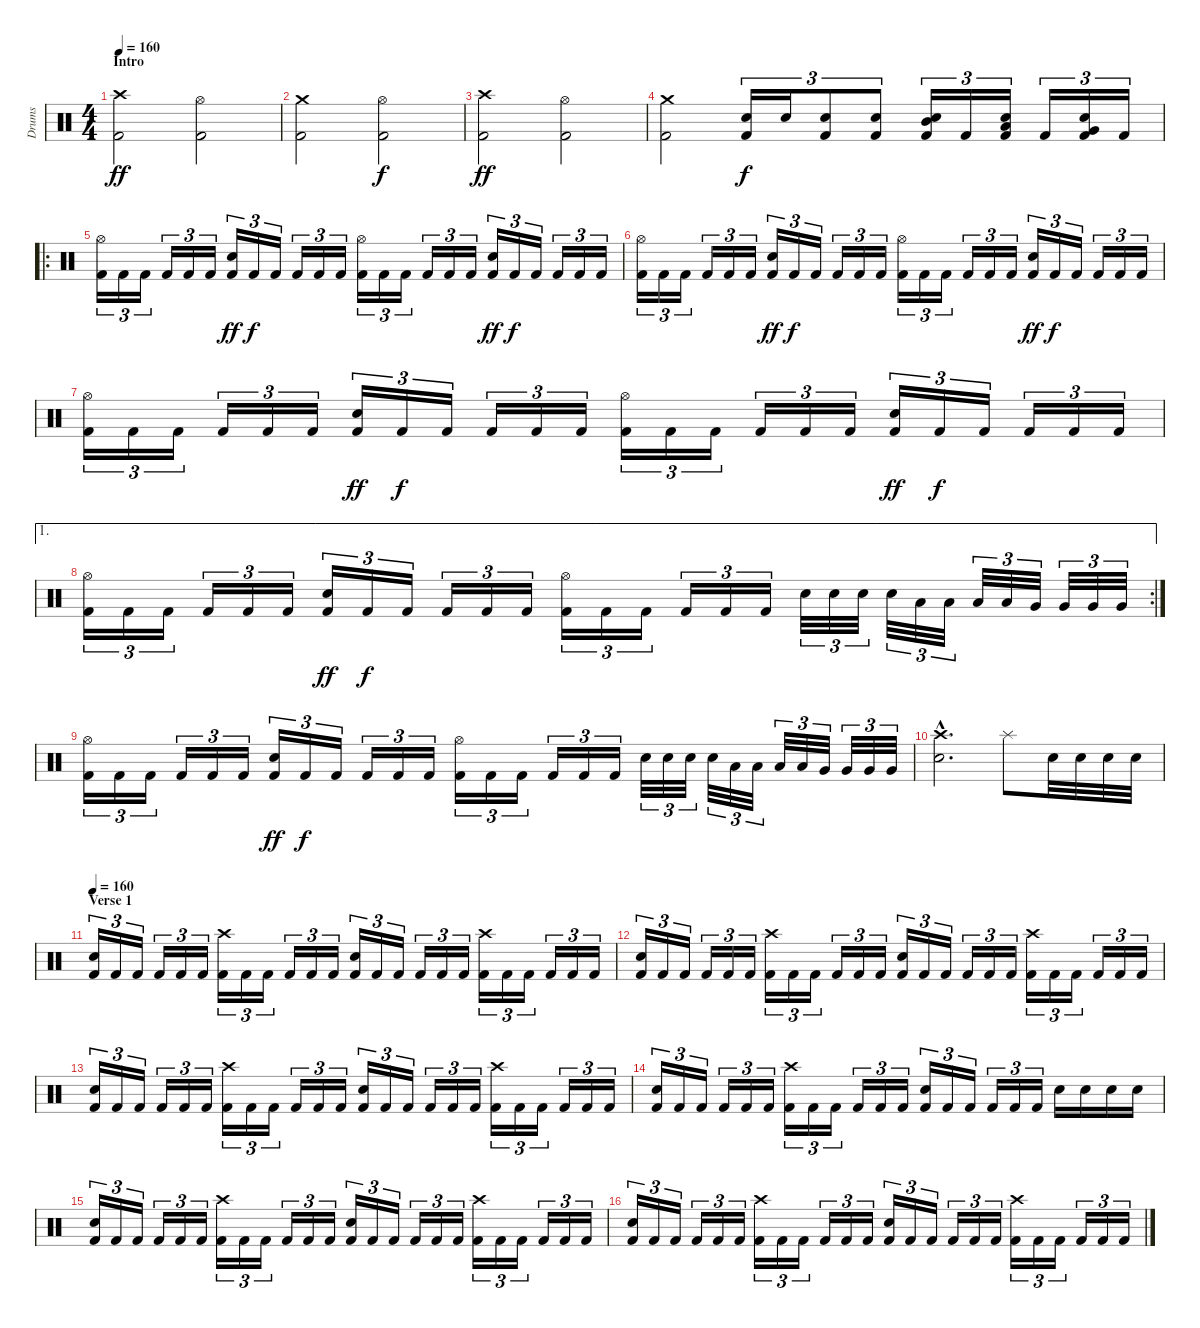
\track ("Drums" "Drums") {instrument percussion}
\staff {score}
\articulation defaults
\ts (4 4)
\section ("" "Intro")
\tempo 160
\tempo 125
\tempo 160
\clef neutral
\ks c
("Crash high (hit)" "Kick (hit) 2").2{dy ff} ("Hi-Hat (open)" "Kick (hit) 2").2 |
("Crash medium (hit)" "Kick (hit) 2").2 ("Hi-Hat (open)" "Kick (hit) 2").2{dy f} |
("Crash high (hit)" "Kick (hit) 2").2{dy ff} ("Hi-Hat (open)" "Kick (hit) 2").2 |
("Crash medium (hit)" "Kick (hit) 2").2 ("Electric Snare (hit)" "Kick (hit) 2").16{tu (3 2) dy f} "Electric Snare (hit)".16{tu (3 2)} ("Electric Snare (hit)" "Kick (hit) 2").8{tu (3 2)} ("Electric Snare (hit)" "Kick (hit) 2").8{tu (3 2)} ("Mid Tom (hit)" "Electric Snare (hit)" "Kick (hit) 2").16{tu (3 2)} "Kick (hit) 2".16{tu (3 2)} ("Low Tom (hit)" "Electric Snare (hit)" "Kick (hit) 2").16{tu (3 2)} "Kick (hit) 2".16{tu (3 2)} ("Very Low Tom (hit)" "Electric Snare (hit)" "Kick (hit) 2").16{tu (3 2)} "Kick (hit) 2".16{tu (3 2)} |
\ro
("Hi-Hat (open)" "Kick (hit) 2").16{tu (3 2)} "Kick (hit) 2".16{tu (3 2)} "Kick (hit) 2".16{tu (3 2)} "Kick (hit) 2".16{tu (3 2)} "Kick (hit) 2".16{tu (3 2)} "Kick (hit) 2".16{tu (3 2)} ("Electric Snare (hit)" "Kick (hit) 2").16{tu (3 2) dy ff} "Kick (hit) 2".16{tu (3 2) dy f} "Kick (hit) 2".16{tu (3 2)} "Kick (hit) 2".16{tu (3 2)} "Kick (hit) 2".16{tu (3 2)} "Kick (hit) 2".16{tu (3 2)} ("Hi-Hat (open)" "Kick (hit) 2").16{tu (3 2)} "Kick (hit) 2".16{tu (3 2)} "Kick (hit) 2".16{tu (3 2)} "Kick (hit) 2".16{tu (3 2)} "Kick (hit) 2".16{tu (3 2)} "Kick (hit) 2".16{tu (3 2)} ("Electric Snare (hit)" "Kick (hit) 2").16{tu (3 2) dy ff} "Kick (hit) 2".16{tu (3 2) dy f} "Kick (hit) 2".16{tu (3 2)} "Kick (hit) 2".16{tu (3 2)} "Kick (hit) 2".16{tu (3 2)} "Kick (hit) 2".16{tu (3 2)} |
("Hi-Hat (open)" "Kick (hit) 2").16{tu (3 2)} "Kick (hit) 2".16{tu (3 2)} "Kick (hit) 2".16{tu (3 2)} "Kick (hit) 2".16{tu (3 2)} "Kick (hit) 2".16{tu (3 2)} "Kick (hit) 2".16{tu (3 2)} ("Electric Snare (hit)" "Kick (hit) 2").16{tu (3 2) dy ff} "Kick (hit) 2".16{tu (3 2) dy f} "Kick (hit) 2".16{tu (3 2)} "Kick (hit) 2".16{tu (3 2)} "Kick (hit) 2".16{tu (3 2)} "Kick (hit) 2".16{tu (3 2)} ("Hi-Hat (open)" "Kick (hit) 2").16{tu (3 2)} "Kick (hit) 2".16{tu (3 2)} "Kick (hit) 2".16{tu (3 2)} "Kick (hit) 2".16{tu (3 2)} "Kick (hit) 2".16{tu (3 2)} "Kick (hit) 2".16{tu (3 2)} ("Electric Snare (hit)" "Kick (hit) 2").16{tu (3 2) dy ff} "Kick (hit) 2".16{tu (3 2) dy f} "Kick (hit) 2".16{tu (3 2)} "Kick (hit) 2".16{tu (3 2)} "Kick (hit) 2".16{tu (3 2)} "Kick (hit) 2".16{tu (3 2)} |
("Hi-Hat (open)" "Kick (hit) 2").16{tu (3 2)} "Kick (hit) 2".16{tu (3 2)} "Kick (hit) 2".16{tu (3 2)} "Kick (hit) 2".16{tu (3 2)} "Kick (hit) 2".16{tu (3 2)} "Kick (hit) 2".16{tu (3 2)} ("Electric Snare (hit)" "Kick (hit) 2").16{tu (3 2) dy ff} "Kick (hit) 2".16{tu (3 2) dy f} "Kick (hit) 2".16{tu (3 2)} "Kick (hit) 2".16{tu (3 2)} "Kick (hit) 2".16{tu (3 2)} "Kick (hit) 2".16{tu (3 2)} ("Hi-Hat (open)" "Kick (hit) 2").16{tu (3 2)} "Kick (hit) 2".16{tu (3 2)} "Kick (hit) 2".16{tu (3 2)} "Kick (hit) 2".16{tu (3 2)} "Kick (hit) 2".16{tu (3 2)} "Kick (hit) 2".16{tu (3 2)} ("Electric Snare (hit)" "Kick (hit) 2").16{tu (3 2) dy ff} "Kick (hit) 2".16{tu (3 2) dy f} "Kick (hit) 2".16{tu (3 2)} "Kick (hit) 2".16{tu (3 2)} "Kick (hit) 2".16{tu (3 2)} "Kick (hit) 2".16{tu (3 2)} |
\ae 1
\rc 2
("Hi-Hat (open)" "Kick (hit) 2").16{tu (3 2)} "Kick (hit) 2".16{tu (3 2)} "Kick (hit) 2".16{tu (3 2)} "Kick (hit) 2".16{tu (3 2)} "Kick (hit) 2".16{tu (3 2)} "Kick (hit) 2".16{tu (3 2)} ("Electric Snare (hit)" "Kick (hit) 2").16{tu (3 2) dy ff} "Kick (hit) 2".16{tu (3 2) dy f} "Kick (hit) 2".16{tu (3 2)} "Kick (hit) 2".16{tu (3 2)} "Kick (hit) 2".16{tu (3 2)} "Kick (hit) 2".16{tu (3 2)} ("Hi-Hat (open)" "Kick (hit) 2").16{tu (3 2)} "Kick (hit) 2".16{tu (3 2)} "Kick (hit) 2".16{tu (3 2)} "Kick (hit) 2".16{tu (3 2)} "Kick (hit) 2".16{tu (3 2)} "Kick (hit) 2".16{tu (3 2)} "Electric Snare (hit)".32{tu (3 2)} "Electric Snare (hit)".32{tu (3 2)} "Electric Snare (hit)".32{tu (3 2)} "Electric Snare (hit)".32{tu (3 2)} "Low Tom (hit)".32{tu (3 2)} "Low Tom (hit)".32{tu (3 2)} "Low Tom (hit)".32{tu (3 2)} "Low Tom (hit)".32{tu (3 2)} "Very Low Tom (hit)".32{tu (3 2)} "Very Low Tom (hit)".32{tu (3 2)} "Very Low Tom (hit)".32{tu (3 2)} "Very Low Tom (hit)".32{tu (3 2)} |
("Hi-Hat (open)" "Kick (hit) 2").16{tu (3 2)} "Kick (hit) 2".16{tu (3 2)} "Kick (hit) 2".16{tu (3 2)} "Kick (hit) 2".16{tu (3 2)} "Kick (hit) 2".16{tu (3 2)} "Kick (hit) 2".16{tu (3 2)} ("Electric Snare (hit)" "Kick (hit) 2").16{tu (3 2) dy ff} "Kick (hit) 2".16{tu (3 2) dy f} "Kick (hit) 2".16{tu (3 2)} "Kick (hit) 2".16{tu (3 2)} "Kick (hit) 2".16{tu (3 2)} "Kick (hit) 2".16{tu (3 2)} ("Hi-Hat (open)" "Kick (hit) 2").16{tu (3 2)} "Kick (hit) 2".16{tu (3 2)} "Kick (hit) 2".16{tu (3 2)} "Kick (hit) 2".16{tu (3 2)} "Kick (hit) 2".16{tu (3 2)} "Kick (hit) 2".16{tu (3 2)} "Electric Snare (hit)".32{tu (3 2)} "Electric Snare (hit)".32{tu (3 2)} "Electric Snare (hit)".32{tu (3 2)} "Electric Snare (hit)".32{tu (3 2)} "Low Tom (hit)".32{tu (3 2)} "Low Tom (hit)".32{tu (3 2)} "Low Tom (hit)".32{tu (3 2)} "Low Tom (hit)".32{tu (3 2)} "Very Low Tom (hit)".32{tu (3 2)} "Very Low Tom (hit)".32{tu (3 2)} "Very Low Tom (hit)".32{tu (3 2)} "Very Low Tom (hit)".32{tu (3 2)} |
("Crash high (hit)"{hac} "Electric Snare (hit)"{hac}).2{d} "Splash (hit)".8 "Electric Snare (hit)".32 "Electric Snare (hit)".32 "Electric Snare (hit)".32 "Electric Snare (hit)".32 |
\section ("" "Verse 1")
\tempo 160
("Kick (hit) 2" "Electric Snare (hit)").16{tu (3 2)} "Kick (hit) 2".16{tu (3 2)} "Kick (hit) 2".16{tu (3 2)} "Kick (hit) 2".16{tu (3 2)} "Kick (hit) 2".16{tu (3 2)} "Kick (hit) 2".16{tu (3 2)} ("Kick (hit) 2" "Crash high (hit)").16{tu (3 2)} "Kick (hit) 2".16{tu (3 2)} "Kick (hit) 2".16{tu (3 2)} "Kick (hit) 2".16{tu (3 2)} "Kick (hit) 2".16{tu (3 2)} "Kick (hit) 2".16{tu (3 2)} ("Kick (hit) 2" "Electric Snare (hit)").16{tu (3 2)} "Kick (hit) 2".16{tu (3 2)} "Kick (hit) 2".16{tu (3 2)} "Kick (hit) 2".16{tu (3 2)} "Kick (hit) 2".16{tu (3 2)} "Kick (hit) 2".16{tu (3 2)} ("Kick (hit) 2" "Crash high (hit)").16{tu (3 2)} "Kick (hit) 2".16{tu (3 2)} "Kick (hit) 2".16{tu (3 2)} "Kick (hit) 2".16{tu (3 2)} "Kick (hit) 2".16{tu (3 2)} "Kick (hit) 2".16{tu (3 2)} |
("Kick (hit) 2" "Electric Snare (hit)").16{tu (3 2)} "Kick (hit) 2".16{tu (3 2)} "Kick (hit) 2".16{tu (3 2)} "Kick (hit) 2".16{tu (3 2)} "Kick (hit) 2".16{tu (3 2)} "Kick (hit) 2".16{tu (3 2)} ("Kick (hit) 2" "Crash high (hit)").16{tu (3 2)} "Kick (hit) 2".16{tu (3 2)} "Kick (hit) 2".16{tu (3 2)} "Kick (hit) 2".16{tu (3 2)} "Kick (hit) 2".16{tu (3 2)} "Kick (hit) 2".16{tu (3 2)} ("Kick (hit) 2" "Electric Snare (hit)").16{tu (3 2)} "Kick (hit) 2".16{tu (3 2)} "Kick (hit) 2".16{tu (3 2)} "Kick (hit) 2".16{tu (3 2)} "Kick (hit) 2".16{tu (3 2)} "Kick (hit) 2".16{tu (3 2)} ("Kick (hit) 2" "Crash high (hit)").16{tu (3 2)} "Kick (hit) 2".16{tu (3 2)} "Kick (hit) 2".16{tu (3 2)} "Kick (hit) 2".16{tu (3 2)} "Kick (hit) 2".16{tu (3 2)} "Kick (hit) 2".16{tu (3 2)} |
("Kick (hit) 2" "Electric Snare (hit)").16{tu (3 2)} "Kick (hit) 2".16{tu (3 2)} "Kick (hit) 2".16{tu (3 2)} "Kick (hit) 2".16{tu (3 2)} "Kick (hit) 2".16{tu (3 2)} "Kick (hit) 2".16{tu (3 2)} ("Kick (hit) 2" "Crash high (hit)").16{tu (3 2)} "Kick (hit) 2".16{tu (3 2)} "Kick (hit) 2".16{tu (3 2)} "Kick (hit) 2".16{tu (3 2)} "Kick (hit) 2".16{tu (3 2)} "Kick (hit) 2".16{tu (3 2)} ("Kick (hit) 2" "Electric Snare (hit)").16{tu (3 2)} "Kick (hit) 2".16{tu (3 2)} "Kick (hit) 2".16{tu (3 2)} "Kick (hit) 2".16{tu (3 2)} "Kick (hit) 2".16{tu (3 2)} "Kick (hit) 2".16{tu (3 2)} ("Kick (hit) 2" "Crash high (hit)").16{tu (3 2)} "Kick (hit) 2".16{tu (3 2)} "Kick (hit) 2".16{tu (3 2)} "Kick (hit) 2".16{tu (3 2)} "Kick (hit) 2".16{tu (3 2)} "Kick (hit) 2".16{tu (3 2)} |
("Kick (hit) 2" "Electric Snare (hit)").16{tu (3 2)} "Kick (hit) 2".16{tu (3 2)} "Kick (hit) 2".16{tu (3 2)} "Kick (hit) 2".16{tu (3 2)} "Kick (hit) 2".16{tu (3 2)} "Kick (hit) 2".16{tu (3 2)} ("Kick (hit) 2" "Crash high (hit)").16{tu (3 2)} "Kick (hit) 2".16{tu (3 2)} "Kick (hit) 2".16{tu (3 2)} "Kick (hit) 2".16{tu (3 2)} "Kick (hit) 2".16{tu (3 2)} "Kick (hit) 2".16{tu (3 2)} ("Kick (hit) 2" "Electric Snare (hit)").16{tu (3 2)} "Kick (hit) 2".16{tu (3 2)} "Kick (hit) 2".16{tu (3 2)} "Kick (hit) 2".16{tu (3 2)} "Kick (hit) 2".16{tu (3 2)} "Kick (hit) 2".16{tu (3 2)} "Electric Snare (hit)".16 "Electric Snare (hit)".16 "Electric Snare (hit)".16 "Electric Snare (hit)".16 |
("Kick (hit) 2" "Electric Snare (hit)").16{tu (3 2)} "Kick (hit) 2".16{tu (3 2)} "Kick (hit) 2".16{tu (3 2)} "Kick (hit) 2".16{tu (3 2)} "Kick (hit) 2".16{tu (3 2)} "Kick (hit) 2".16{tu (3 2)} ("Kick (hit) 2" "Crash high (hit)").16{tu (3 2)} "Kick (hit) 2".16{tu (3 2)} "Kick (hit) 2".16{tu (3 2)} "Kick (hit) 2".16{tu (3 2)} "Kick (hit) 2".16{tu (3 2)} "Kick (hit) 2".16{tu (3 2)} ("Kick (hit) 2" "Electric Snare (hit)").16{tu (3 2)} "Kick (hit) 2".16{tu (3 2)} "Kick (hit) 2".16{tu (3 2)} "Kick (hit) 2".16{tu (3 2)} "Kick (hit) 2".16{tu (3 2)} "Kick (hit) 2".16{tu (3 2)} ("Kick (hit) 2" "Crash high (hit)").16{tu (3 2)} "Kick (hit) 2".16{tu (3 2)} "Kick (hit) 2".16{tu (3 2)} "Kick (hit) 2".16{tu (3 2)} "Kick (hit) 2".16{tu (3 2)} "Kick (hit) 2".16{tu (3 2)} |
("Kick (hit) 2" "Electric Snare (hit)").16{tu (3 2)} "Kick (hit) 2".16{tu (3 2)} "Kick (hit) 2".16{tu (3 2)} "Kick (hit) 2".16{tu (3 2)} "Kick (hit) 2".16{tu (3 2)} "Kick (hit) 2".16{tu (3 2)} ("Kick (hit) 2" "Crash high (hit)").16{tu (3 2)} "Kick (hit) 2".16{tu (3 2)} "Kick (hit) 2".16{tu (3 2)} "Kick (hit) 2".16{tu (3 2)} "Kick (hit) 2".16{tu (3 2)} "Kick (hit) 2".16{tu (3 2)} ("Kick (hit) 2" "Electric Snare (hit)").16{tu (3 2)} "Kick (hit) 2".16{tu (3 2)} "Kick (hit) 2".16{tu (3 2)} "Kick (hit) 2".16{tu (3 2)} "Kick (hit) 2".16{tu (3 2)} "Kick (hit) 2".16{tu (3 2)} ("Kick (hit) 2" "Crash high (hit)").16{tu (3 2)} "Kick (hit) 2".16{tu (3 2)} "Kick (hit) 2".16{tu (3 2)} "Kick (hit) 2".16{tu (3 2)} "Kick (hit) 2".16{tu (3 2)} "Kick (hit) 2".16{tu (3 2)}
